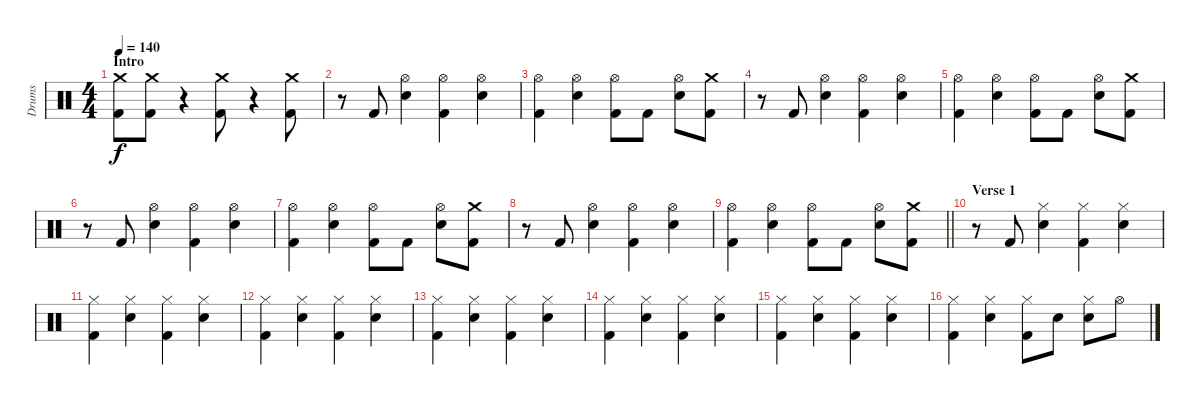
\track ("Drums" "Drums") {instrument percussion}
\staff {score}
\articulation defaults
\ts (4 4)
\section ("" "Intro")
\tempo 140
\clef neutral
\ks c
("Crash medium (hit)" "Kick (hit) 2").8{dy f} ("Crash medium (hit)" "Kick (hit) 2").8 r.4 ("Crash medium (hit)" "Kick (hit) 2").8 r.4 ("Crash medium (hit)" "Kick (hit) 2").8 |
r.8 "Kick (hit) 2".8 ("Hi-Hat (open)" "Snare (hit) 2").4 ("Hi-Hat (open)" "Kick (hit) 2").4 ("Hi-Hat (open)" "Snare (hit) 2").4 |
("Hi-Hat (open)" "Kick (hit) 2").4 ("Hi-Hat (open)" "Snare (hit) 2").4 ("Hi-Hat (open)" "Kick (hit) 2").8 "Kick (hit) 2".8 ("Hi-Hat (open)" "Snare (hit) 2").8 ("Crash medium (hit)" "Kick (hit) 2").8 |
r.8 "Kick (hit) 2".8 ("Hi-Hat (open)" "Snare (hit) 2").4 ("Hi-Hat (open)" "Kick (hit) 2").4 ("Hi-Hat (open)" "Snare (hit) 2").4 |
("Hi-Hat (open)" "Kick (hit) 2").4 ("Hi-Hat (open)" "Snare (hit) 2").4 ("Hi-Hat (open)" "Kick (hit) 2").8 "Kick (hit) 2".8 ("Hi-Hat (open)" "Snare (hit) 2").8 ("Crash medium (hit)" "Kick (hit) 2").8 |
r.8 "Kick (hit) 2".8 ("Hi-Hat (open)" "Snare (hit) 2").4 ("Hi-Hat (open)" "Kick (hit) 2").4 ("Hi-Hat (open)" "Snare (hit) 2").4 |
("Hi-Hat (open)" "Kick (hit) 2").4 ("Hi-Hat (open)" "Snare (hit) 2").4 ("Hi-Hat (open)" "Kick (hit) 2").8 "Kick (hit) 2".8 ("Hi-Hat (open)" "Snare (hit) 2").8 ("Crash medium (hit)" "Kick (hit) 2").8 |
r.8 "Kick (hit) 2".8 ("Hi-Hat (open)" "Snare (hit) 2").4 ("Hi-Hat (open)" "Kick (hit) 2").4 ("Hi-Hat (open)" "Snare (hit) 2").4 |
\barLineRight lightlight
("Hi-Hat (open)" "Kick (hit) 2").4 ("Hi-Hat (open)" "Snare (hit) 2").4 ("Hi-Hat (open)" "Kick (hit) 2").8 "Kick (hit) 2".8 ("Hi-Hat (open)" "Snare (hit) 2").8 ("Crash medium (hit)" "Kick (hit) 2").8 |
\section ("" "Verse 1")
r.8 "Kick (hit) 2".8 ("Hi-Hat (closed)" "Snare (hit) 2").4 ("Hi-Hat (closed)" "Kick (hit) 2").4 ("Hi-Hat (closed)" "Snare (hit) 2").4 |
("Hi-Hat (closed)" "Kick (hit) 2").4 ("Hi-Hat (closed)" "Snare (hit) 2").4 ("Hi-Hat (closed)" "Kick (hit) 2").4 ("Hi-Hat (closed)" "Snare (hit) 2").4 |
("Hi-Hat (closed)" "Kick (hit) 2").4 ("Hi-Hat (closed)" "Snare (hit) 2").4 ("Hi-Hat (closed)" "Kick (hit) 2").4 ("Hi-Hat (closed)" "Snare (hit) 2").4 |
("Hi-Hat (closed)" "Kick (hit) 2").4 ("Hi-Hat (closed)" "Snare (hit) 2").4 ("Hi-Hat (closed)" "Kick (hit) 2").4 ("Hi-Hat (closed)" "Snare (hit) 2").4 |
("Hi-Hat (closed)" "Kick (hit) 2").4 ("Hi-Hat (closed)" "Snare (hit) 2").4 ("Hi-Hat (closed)" "Kick (hit) 2").4 ("Hi-Hat (closed)" "Snare (hit) 2").4 |
("Hi-Hat (closed)" "Kick (hit) 2").4 ("Hi-Hat (closed)" "Snare (hit) 2").4 ("Hi-Hat (closed)" "Kick (hit) 2").4 ("Hi-Hat (closed)" "Snare (hit) 2").4 |
("Hi-Hat (closed)" "Kick (hit) 2").4 ("Hi-Hat (closed)" "Snare (hit) 2").4 ("Hi-Hat (closed)" "Kick (hit) 2").8 "Snare (hit) 2".8 ("Hi-Hat (closed)" "Snare (hit) 2").8 "Hi-Hat (open)".8
